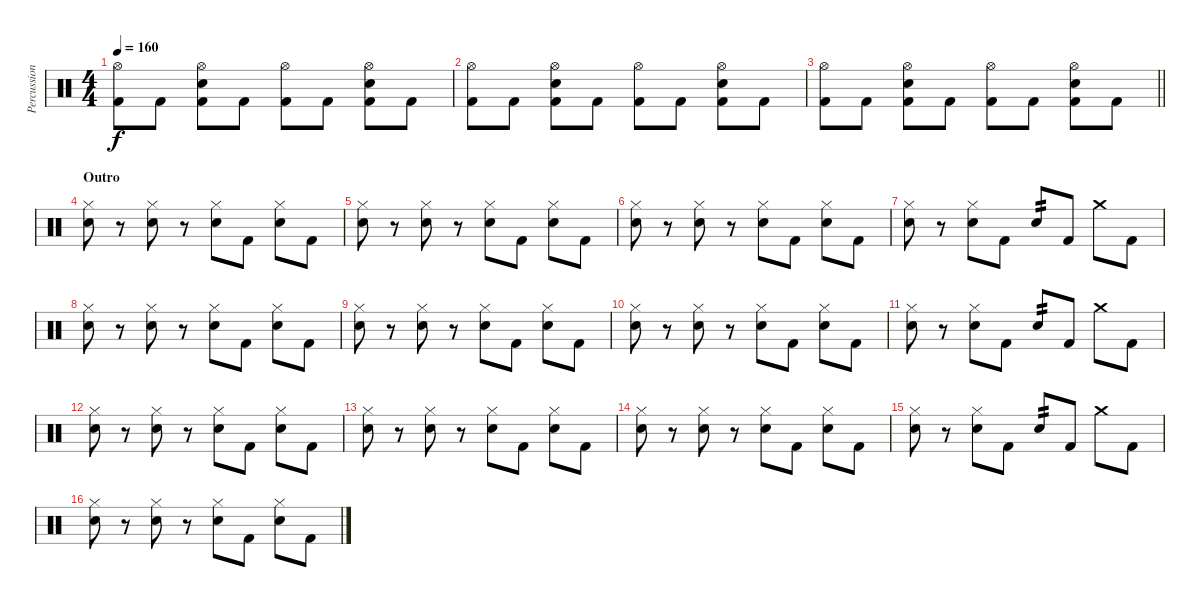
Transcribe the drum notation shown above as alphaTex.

\track ("Percussion" "Percussion") {instrument percussion}
\staff {score}
\articulation defaults
\ts (4 4)
\tempo 160
\clef neutral
\ks c
("Hi-Hat (open)" "Kick (hit) 2").8{dy f} "Kick (hit) 2".8 ("Hi-Hat (open)" "Snare (hit) 2" "Kick (hit) 2").8 "Kick (hit) 2".8 ("Hi-Hat (open)" "Kick (hit) 2").8 "Kick (hit) 2".8 ("Hi-Hat (open)" "Snare (hit) 2" "Kick (hit) 2").8 "Kick (hit) 2".8 |
("Hi-Hat (open)" "Kick (hit) 2").8 "Kick (hit) 2".8 ("Hi-Hat (open)" "Snare (hit) 2" "Kick (hit) 2").8 "Kick (hit) 2".8 ("Hi-Hat (open)" "Kick (hit) 2").8 "Kick (hit) 2".8 ("Hi-Hat (open)" "Snare (hit) 2" "Kick (hit) 2").8 "Kick (hit) 2".8 |
\barLineRight lightlight
("Hi-Hat (open)" "Kick (hit) 2").8 "Kick (hit) 2".8 ("Hi-Hat (open)" "Snare (hit) 2" "Kick (hit) 2").8 "Kick (hit) 2".8 ("Hi-Hat (open)" "Kick (hit) 2").8 "Kick (hit) 2".8 ("Hi-Hat (open)" "Snare (hit) 2" "Kick (hit) 2").8 "Kick (hit) 2".8 |
\section ("" "Outro")
("Hi-Hat (closed)" "Snare (hit) 2").8 r.8 ("Hi-Hat (closed)" "Snare (hit) 2").8 r.8 ("Hi-Hat (closed)" "Snare (hit) 2").8 "Kick (hit) 2".8 ("Hi-Hat (closed)" "Snare (hit) 2").8 "Kick (hit) 2".8 |
("Hi-Hat (closed)" "Snare (hit) 2").8 r.8 ("Hi-Hat (closed)" "Snare (hit) 2").8 r.8 ("Hi-Hat (closed)" "Snare (hit) 2").8 "Kick (hit) 2".8 ("Hi-Hat (closed)" "Snare (hit) 2").8 "Kick (hit) 2".8 |
("Hi-Hat (closed)" "Snare (hit) 2").8 r.8 ("Hi-Hat (closed)" "Snare (hit) 2").8 r.8 ("Hi-Hat (closed)" "Snare (hit) 2").8 "Kick (hit) 2".8 ("Hi-Hat (closed)" "Snare (hit) 2").8 "Kick (hit) 2".8 |
("Hi-Hat (closed)" "Snare (hit) 2").8 r.8 ("Hi-Hat (closed)" "Snare (hit) 2").8 "Kick (hit) 2".8 "Snare (hit) 2".8{tp 2} "Kick (hit) 2".8 "Crash medium (hit)".8 "Kick (hit) 2".8 |
("Hi-Hat (closed)" "Snare (hit) 2").8 r.8 ("Hi-Hat (closed)" "Snare (hit) 2").8 r.8 ("Hi-Hat (closed)" "Snare (hit) 2").8 "Kick (hit) 2".8 ("Hi-Hat (closed)" "Snare (hit) 2").8 "Kick (hit) 2".8 |
("Hi-Hat (closed)" "Snare (hit) 2").8 r.8 ("Hi-Hat (closed)" "Snare (hit) 2").8 r.8 ("Hi-Hat (closed)" "Snare (hit) 2").8 "Kick (hit) 2".8 ("Hi-Hat (closed)" "Snare (hit) 2").8 "Kick (hit) 2".8 |
("Hi-Hat (closed)" "Snare (hit) 2").8 r.8 ("Hi-Hat (closed)" "Snare (hit) 2").8 r.8 ("Hi-Hat (closed)" "Snare (hit) 2").8 "Kick (hit) 2".8 ("Hi-Hat (closed)" "Snare (hit) 2").8 "Kick (hit) 2".8 |
("Hi-Hat (closed)" "Snare (hit) 2").8 r.8 ("Hi-Hat (closed)" "Snare (hit) 2").8 "Kick (hit) 2".8 "Snare (hit) 2".8{tp 2} "Kick (hit) 2".8 "Crash medium (hit)".8 "Kick (hit) 2".8 |
("Hi-Hat (closed)" "Snare (hit) 2").8 r.8 ("Hi-Hat (closed)" "Snare (hit) 2").8 r.8 ("Hi-Hat (closed)" "Snare (hit) 2").8 "Kick (hit) 2".8 ("Hi-Hat (closed)" "Snare (hit) 2").8 "Kick (hit) 2".8 |
("Hi-Hat (closed)" "Snare (hit) 2").8 r.8 ("Hi-Hat (closed)" "Snare (hit) 2").8 r.8 ("Hi-Hat (closed)" "Snare (hit) 2").8 "Kick (hit) 2".8 ("Hi-Hat (closed)" "Snare (hit) 2").8 "Kick (hit) 2".8 |
("Hi-Hat (closed)" "Snare (hit) 2").8 r.8 ("Hi-Hat (closed)" "Snare (hit) 2").8 r.8 ("Hi-Hat (closed)" "Snare (hit) 2").8 "Kick (hit) 2".8 ("Hi-Hat (closed)" "Snare (hit) 2").8 "Kick (hit) 2".8 |
("Hi-Hat (closed)" "Snare (hit) 2").8 r.8 ("Hi-Hat (closed)" "Snare (hit) 2").8 "Kick (hit) 2".8 "Snare (hit) 2".8{tp 2} "Kick (hit) 2".8 "Crash medium (hit)".8 "Kick (hit) 2".8 |
("Hi-Hat (closed)" "Snare (hit) 2").8 r.8 ("Hi-Hat (closed)" "Snare (hit) 2").8 r.8 ("Hi-Hat (closed)" "Snare (hit) 2").8 "Kick (hit) 2".8 ("Hi-Hat (closed)" "Snare (hit) 2").8 "Kick (hit) 2".8
